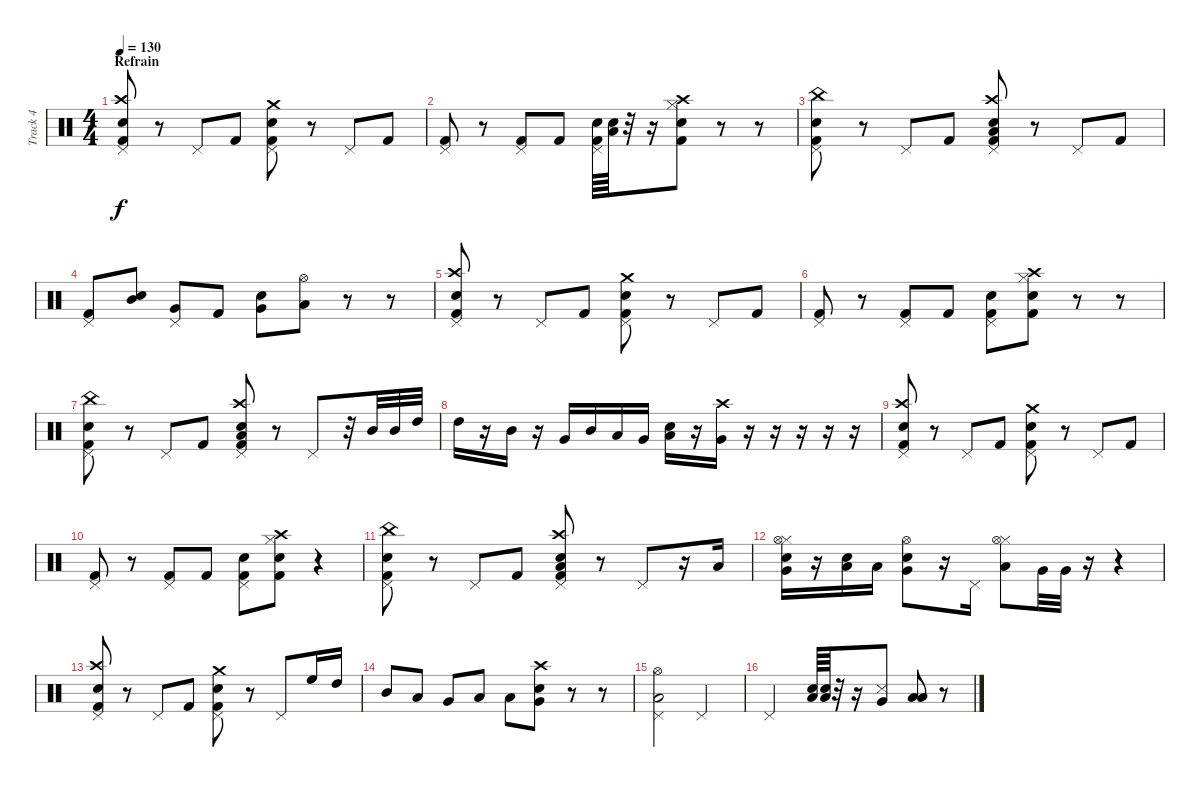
\track ("Track 4" "Track 4") {instrument percussion}
\staff {score}
\articulation defaults
\ts (4 4)
\section ("" "Refrain")
\tempo 130
\clef neutral
\ks c
("Kick (hit) 2" "Pedal Hi-Hat (hit)" "Crash high (hit)" "Snare (hit) 2").8{dy f} r.8 "Pedal Hi-Hat (hit)".8 "Kick (hit) 2".8 ("Crash medium (hit)" "Snare (hit) 2" "Kick (hit) 2" "Pedal Hi-Hat (hit)").8 r.8 "Pedal Hi-Hat (hit)".8 "Kick (hit) 2".8 |
("Kick (hit) 2" "Pedal Hi-Hat (hit)").8 r.8 ("Pedal Hi-Hat (hit)" "Kick (hit) 2").8 "Kick (hit) 2".8 ("Pedal Hi-Hat (hit)" "Kick (hit) 2" "Electric Snare (hit)").64 ("Electric Snare (hit)" "Low Tom (hit)").64 r.32 r.16 ("Kick (hit) 2" "Hi-Hat (closed)" "Snare (hit) 2" "Crash high (hit)").8 r.8 r.8 |
("Kick (hit) 2" "Pedal Hi-Hat (hit)" "China (hit)" "Snare (hit) 2").8 r.8 "Pedal Hi-Hat (hit)".8 "Kick (hit) 2".8 ("Low Tom (hit)" "Snare (hit) 2" "Kick (hit) 2" "Pedal Hi-Hat (hit)" "Crash high (hit)").8 r.8 "Pedal Hi-Hat (hit)".8 "Kick (hit) 2".8 |
("Kick (hit) 2" "Pedal Hi-Hat (hit)").8 ("Electric Snare (hit)" "Mid Tom (hit)").8 ("Very Low Tom (hit)" "Pedal Hi-Hat (hit)").8 "Kick (hit) 2".8 ("Very Low Tom (hit)" "Electric Snare (hit)").8 ("Low Tom (hit)" "Hi-Hat (open)").8 r.8 r.8 |
("Kick (hit) 2" "Pedal Hi-Hat (hit)" "Crash high (hit)" "Snare (hit) 2").8 r.8 "Pedal Hi-Hat (hit)".8 "Kick (hit) 2".8 ("Crash medium (hit)" "Snare (hit) 2" "Kick (hit) 2" "Pedal Hi-Hat (hit)").8 r.8 "Pedal Hi-Hat (hit)".8 "Kick (hit) 2".8 |
("Kick (hit) 2" "Pedal Hi-Hat (hit)").8 r.8 ("Pedal Hi-Hat (hit)" "Kick (hit) 2").8 "Kick (hit) 2".8 ("Pedal Hi-Hat (hit)" "Kick (hit) 2" "Electric Snare (hit)").8 ("Kick (hit) 2" "Hi-Hat (closed)" "Snare (hit) 2" "Crash high (hit)").8 r.8 r.8 |
("Kick (hit) 2" "Pedal Hi-Hat (hit)" "China (hit)" "Snare (hit) 2").8 r.8 "Pedal Hi-Hat (hit)".8 "Kick (hit) 2".8 ("Low Tom (hit)" "Snare (hit) 2" "Kick (hit) 2" "Pedal Hi-Hat (hit)" "Crash high (hit)").8 r.8 "Pedal Hi-Hat (hit)".8 r.32 "Mid Tom (hit)".32 "Mid Tom (hit)".32 "High Tom (hit)".32 |
"High Tom (hit)".16 r.16 "Mid Tom (hit)".16 r.16 "Very Low Tom (hit)".16 "Mid Tom (hit)".16 "Low Tom (hit)".16 "Very Low Tom (hit)".16 ("Low Floor Tom (hit)" "Snare (hit) 2").16 r.16 ("Very Low Tom (hit)" "Crash high (hit)").16 r.16 r.16 r.16 r.16 r.16 |
("Kick (hit) 2" "Pedal Hi-Hat (hit)" "Crash high (hit)" "Snare (hit) 2").8 r.8 "Pedal Hi-Hat (hit)".8 "Kick (hit) 2".8 ("Crash medium (hit)" "Snare (hit) 2" "Kick (hit) 2" "Pedal Hi-Hat (hit)").8 r.8 "Pedal Hi-Hat (hit)".8 "Kick (hit) 2".8 |
("Kick (hit) 2" "Pedal Hi-Hat (hit)").8 r.8 ("Pedal Hi-Hat (hit)" "Kick (hit) 2").8 "Kick (hit) 2".8 ("Pedal Hi-Hat (hit)" "Kick (hit) 2" "Electric Snare (hit)").8 ("Kick (hit) 2" "Hi-Hat (closed)" "Snare (hit) 2" "Crash high (hit)").8 r.4 |
("Kick (hit) 2" "Pedal Hi-Hat (hit)" "China (hit)" "Snare (hit) 2").8 r.8 "Pedal Hi-Hat (hit)".8 "Kick (hit) 2".8 ("Low Tom (hit)" "Snare (hit) 2" "Kick (hit) 2" "Pedal Hi-Hat (hit)" "Crash high (hit)").8 r.8 "Pedal Hi-Hat (hit)".8 r.16 "Low Floor Tom (hit)".16 |
("Electric Snare (hit)" "Very Low Tom (hit)" "Hi-Hat (closed)" "Hi-Hat (open)").16 r.16 ("Low Floor Tom (hit)" "Electric Snare (hit)").16 "Low Floor Tom (hit)".16 ("Electric Snare (hit)" "Very Low Tom (hit)" "Hi-Hat (open)").8 r.16 "Pedal Hi-Hat (hit)".16 ("Low Floor Tom (hit)" "Hi-Hat (closed)" "Hi-Hat (open)").8 "Very Low Tom (hit)".32 "Very Low Tom (hit)".32 r.16 r.4 |
("Kick (hit) 2" "Pedal Hi-Hat (hit)" "Crash high (hit)" "Snare (hit) 2").8 r.8 "Pedal Hi-Hat (hit)".8 "Kick (hit) 2".8 ("Crash medium (hit)" "Snare (hit) 2" "Kick (hit) 2" "Pedal Hi-Hat (hit)").8 r.8 "Pedal Hi-Hat (hit)".8 "High Floor Tom (hit)".16 "High Tom (hit)".16 |
"Mid Tom (hit)".8 "Low Tom (hit)".8 "Very Low Tom (hit)".8 "Low Floor Tom (hit)".8 "Low Floor Tom (hit)".8 ("Very Low Tom (hit)" "Snare (hit) 2" "Crash high (hit)").8 r.8 r.8 |
("Low Tom (hit)" "Hi-Hat (open)" "Pedal Hi-Hat (hit)").2 "Pedal Hi-Hat (hit)".2 |
"Pedal Hi-Hat (hit)".2 ("Low Tom (hit)" "Electric Snare (hit)").64 ("Low Tom (hit)" "Electric Snare (hit)").64 r.32 r.16 ("Very Low Tom (hit)" "Snare (side stick) 3").8 ("Low Floor Tom (hit)" "Low Tom (hit)").8 r.8
